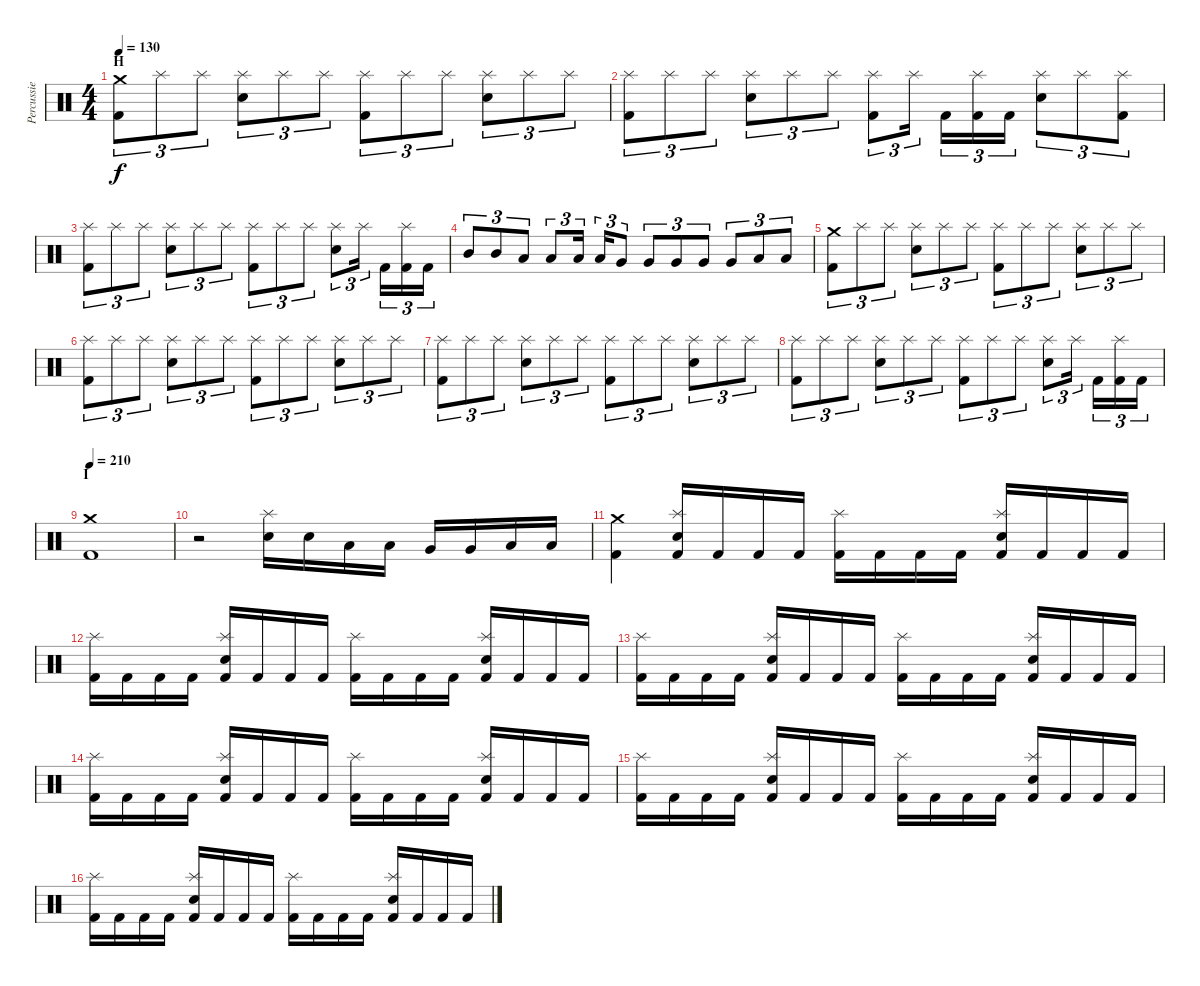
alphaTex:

\track ("Percussie" "Percussie") {instrument percussion}
\staff {score}
\articulation defaults
\ts (4 4)
\section ("" "H")
\tempo 130
\clef neutral
\ks c
("Crash medium (hit)" "Kick (hit) 2").8{tu (3 2) dy f} "Splash (hit)".8{tu (3 2)} "Splash (hit)".8{tu (3 2)} ("Splash (hit)" "Electric Snare (hit)").8{tu (3 2)} "Splash (hit)".8{tu (3 2)} "Splash (hit)".8{tu (3 2)} ("Splash (hit)" "Kick (hit) 2").8{tu (3 2)} "Splash (hit)".8{tu (3 2)} "Splash (hit)".8{tu (3 2)} ("Splash (hit)" "Electric Snare (hit)").8{tu (3 2)} "Splash (hit)".8{tu (3 2)} "Splash (hit)".8{tu (3 2)} |
("Splash (hit)" "Kick (hit) 2").8{tu (3 2)} "Splash (hit)".8{tu (3 2)} "Splash (hit)".8{tu (3 2)} ("Splash (hit)" "Electric Snare (hit)").8{tu (3 2)} "Splash (hit)".8{tu (3 2)} "Splash (hit)".8{tu (3 2)} ("Splash (hit)" "Kick (hit) 2").8{tu (3 2)} "Splash (hit)".16{tu (3 2)} "Kick (hit) 2".16{tu (3 2)} ("Splash (hit)" "Kick (hit) 2").16{tu (3 2)} "Kick (hit) 2".16{tu (3 2)} ("Splash (hit)" "Electric Snare (hit)").8{tu (3 2)} "Splash (hit)".8{tu (3 2)} ("Splash (hit)" "Kick (hit) 2").8{tu (3 2)} |
("Splash (hit)" "Kick (hit) 2").8{tu (3 2)} "Splash (hit)".8{tu (3 2)} "Splash (hit)".8{tu (3 2)} ("Splash (hit)" "Electric Snare (hit)").8{tu (3 2)} "Splash (hit)".8{tu (3 2)} "Splash (hit)".8{tu (3 2)} ("Splash (hit)" "Kick (hit) 2").8{tu (3 2)} "Splash (hit)".8{tu (3 2)} "Splash (hit)".8{tu (3 2)} ("Splash (hit)" "Electric Snare (hit)").8{tu (3 2)} "Splash (hit)".16{tu (3 2)} "Kick (hit) 2".16{tu (3 2)} ("Splash (hit)" "Kick (hit) 2").16{tu (3 2)} "Kick (hit) 2".16{tu (3 2)} |
"Mid Tom (hit)".8{tu (3 2)} "Mid Tom (hit)".8{tu (3 2)} "Low Tom (hit)".8{tu (3 2)} "Low Tom (hit)".8{tu (3 2)} "Low Tom (hit)".16{tu (3 2)} "Low Tom (hit)".16{tu (3 2)} "Very Low Tom (hit)".8{tu (3 2)} "Very Low Tom (hit)".8{tu (3 2)} "Very Low Tom (hit)".8{tu (3 2)} "Very Low Tom (hit)".8{tu (3 2)} "Very Low Tom (hit)".8{tu (3 2)} "Low Floor Tom (hit)".8{tu (3 2)} "Low Floor Tom (hit)".8{tu (3 2)} |
("Crash medium (hit)" "Kick (hit) 2").8{tu (3 2)} "Splash (hit)".8{tu (3 2)} "Splash (hit)".8{tu (3 2)} ("Splash (hit)" "Electric Snare (hit)").8{tu (3 2)} "Splash (hit)".8{tu (3 2)} "Splash (hit)".8{tu (3 2)} ("Splash (hit)" "Kick (hit) 2").8{tu (3 2)} "Splash (hit)".8{tu (3 2)} "Splash (hit)".8{tu (3 2)} ("Splash (hit)" "Electric Snare (hit)").8{tu (3 2)} "Splash (hit)".8{tu (3 2)} "Splash (hit)".8{tu (3 2)} |
("Splash (hit)" "Kick (hit) 2").8{tu (3 2)} "Splash (hit)".8{tu (3 2)} "Splash (hit)".8{tu (3 2)} ("Splash (hit)" "Electric Snare (hit)").8{tu (3 2)} "Splash (hit)".8{tu (3 2)} "Splash (hit)".8{tu (3 2)} ("Splash (hit)" "Kick (hit) 2").8{tu (3 2)} "Splash (hit)".8{tu (3 2)} "Splash (hit)".8{tu (3 2)} ("Splash (hit)" "Electric Snare (hit)").8{tu (3 2)} "Splash (hit)".8{tu (3 2)} "Splash (hit)".8{tu (3 2)} |
("Splash (hit)" "Kick (hit) 2").8{tu (3 2)} "Splash (hit)".8{tu (3 2)} "Splash (hit)".8{tu (3 2)} ("Splash (hit)" "Electric Snare (hit)").8{tu (3 2)} "Splash (hit)".8{tu (3 2)} "Splash (hit)".8{tu (3 2)} ("Splash (hit)" "Kick (hit) 2").8{tu (3 2)} "Splash (hit)".8{tu (3 2)} "Splash (hit)".8{tu (3 2)} ("Splash (hit)" "Electric Snare (hit)").8{tu (3 2)} "Splash (hit)".8{tu (3 2)} "Splash (hit)".8{tu (3 2)} |
("Splash (hit)" "Kick (hit) 2").8{tu (3 2)} "Splash (hit)".8{tu (3 2)} "Splash (hit)".8{tu (3 2)} ("Splash (hit)" "Electric Snare (hit)").8{tu (3 2)} "Splash (hit)".8{tu (3 2)} "Splash (hit)".8{tu (3 2)} ("Splash (hit)" "Kick (hit) 2").8{tu (3 2)} "Splash (hit)".8{tu (3 2)} "Splash (hit)".8{tu (3 2)} ("Splash (hit)" "Electric Snare (hit)").8{tu (3 2)} "Splash (hit)".16{tu (3 2)} "Kick (hit) 2".16{tu (3 2)} ("Splash (hit)" "Kick (hit) 2").16{tu (3 2)} "Kick (hit) 2".16{tu (3 2)} |
\section ("" "I")
\tempo 210
("Crash medium (hit)" "Kick (hit) 2").1 |
r.2 ("Splash (hit)" "Electric Snare (hit)").16 "Electric Snare (hit)".16 "Low Tom (hit)".16 "Low Tom (hit)".16 "Very Low Tom (hit)".16 "Very Low Tom (hit)".16 "Low Floor Tom (hit)".16 "Low Floor Tom (hit)".16 |
("Crash medium (hit)" "Kick (hit) 2").4 ("Splash (hit)" "Electric Snare (hit)" "Kick (hit) 2").16 "Kick (hit) 2".16 "Kick (hit) 2".16 "Kick (hit) 2".16 ("Splash (hit)" "Kick (hit) 2").16 "Kick (hit) 2".16 "Kick (hit) 2".16 "Kick (hit) 2".16 ("Splash (hit)" "Electric Snare (hit)" "Kick (hit) 2").16 "Kick (hit) 2".16 "Kick (hit) 2".16 "Kick (hit) 2".16 |
("Splash (hit)" "Kick (hit) 2").16 "Kick (hit) 2".16 "Kick (hit) 2".16 "Kick (hit) 2".16 ("Splash (hit)" "Electric Snare (hit)" "Kick (hit) 2").16 "Kick (hit) 2".16 "Kick (hit) 2".16 "Kick (hit) 2".16 ("Splash (hit)" "Kick (hit) 2").16 "Kick (hit) 2".16 "Kick (hit) 2".16 "Kick (hit) 2".16 ("Splash (hit)" "Electric Snare (hit)" "Kick (hit) 2").16 "Kick (hit) 2".16 "Kick (hit) 2".16 "Kick (hit) 2".16 |
("Splash (hit)" "Kick (hit) 2").16 "Kick (hit) 2".16 "Kick (hit) 2".16 "Kick (hit) 2".16 ("Splash (hit)" "Electric Snare (hit)" "Kick (hit) 2").16 "Kick (hit) 2".16 "Kick (hit) 2".16 "Kick (hit) 2".16 ("Splash (hit)" "Kick (hit) 2").16 "Kick (hit) 2".16 "Kick (hit) 2".16 "Kick (hit) 2".16 ("Splash (hit)" "Electric Snare (hit)" "Kick (hit) 2").16 "Kick (hit) 2".16 "Kick (hit) 2".16 "Kick (hit) 2".16 |
("Splash (hit)" "Kick (hit) 2").16 "Kick (hit) 2".16 "Kick (hit) 2".16 "Kick (hit) 2".16 ("Splash (hit)" "Electric Snare (hit)" "Kick (hit) 2").16 "Kick (hit) 2".16 "Kick (hit) 2".16 "Kick (hit) 2".16 ("Splash (hit)" "Kick (hit) 2").16 "Kick (hit) 2".16 "Kick (hit) 2".16 "Kick (hit) 2".16 ("Splash (hit)" "Electric Snare (hit)" "Kick (hit) 2").16 "Kick (hit) 2".16 "Kick (hit) 2".16 "Kick (hit) 2".16 |
("Splash (hit)" "Kick (hit) 2").16 "Kick (hit) 2".16 "Kick (hit) 2".16 "Kick (hit) 2".16 ("Splash (hit)" "Electric Snare (hit)" "Kick (hit) 2").16 "Kick (hit) 2".16 "Kick (hit) 2".16 "Kick (hit) 2".16 ("Splash (hit)" "Kick (hit) 2").16 "Kick (hit) 2".16 "Kick (hit) 2".16 "Kick (hit) 2".16 ("Splash (hit)" "Electric Snare (hit)" "Kick (hit) 2").16 "Kick (hit) 2".16 "Kick (hit) 2".16 "Kick (hit) 2".16 |
("Splash (hit)" "Kick (hit) 2").16 "Kick (hit) 2".16 "Kick (hit) 2".16 "Kick (hit) 2".16 ("Splash (hit)" "Electric Snare (hit)" "Kick (hit) 2").16 "Kick (hit) 2".16 "Kick (hit) 2".16 "Kick (hit) 2".16 ("Splash (hit)" "Kick (hit) 2").16 "Kick (hit) 2".16 "Kick (hit) 2".16 "Kick (hit) 2".16 ("Splash (hit)" "Electric Snare (hit)" "Kick (hit) 2").16 "Kick (hit) 2".16 "Kick (hit) 2".16 "Kick (hit) 2".16
